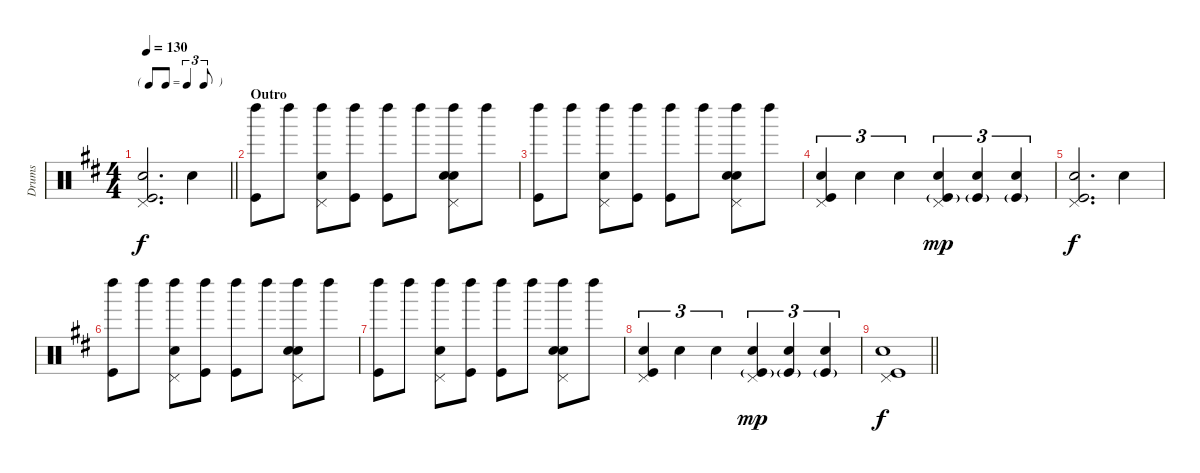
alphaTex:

\track ("Drums" "Drums") {instrument percussion}
\staff {score}
\articulation defaults
\ts (4 4)
\tf triplet8th
\tempo 130
\clef neutral
\barLineRight lightlight
\ks d
("Pedal Hi-Hat (hit)" "Snare (hit) 2" "Kick (hit)").2{d dy f} "Snare (hit) 2".4 |
\section ("" "Outro")
("Left Maraca (hit)" "Kick (hit)").8 "Left Maraca (hit)".8 ("Left Maraca (hit)" "Pedal Hi-Hat (hit)" "Snare (hit) 2").8 ("Left Maraca (hit)" "Kick (hit)").8 ("Left Maraca (hit)" "Kick (hit)").8 "Left Maraca (hit)".8 ("Left Maraca (hit)" "Pedal Hi-Hat (hit)" "Snare (hit) 2" "Hand Clap (hit)").8 "Left Maraca (hit)".8 |
("Left Maraca (hit)" "Kick (hit)").8 "Left Maraca (hit)".8 ("Left Maraca (hit)" "Pedal Hi-Hat (hit)" "Snare (hit) 2").8 ("Left Maraca (hit)" "Kick (hit)").8 ("Left Maraca (hit)" "Kick (hit)").8 "Left Maraca (hit)".8 ("Left Maraca (hit)" "Pedal Hi-Hat (hit)" "Snare (hit) 2" "Hand Clap (hit)").8 "Left Maraca (hit)".8 |
("Pedal Hi-Hat (hit)" "Snare (hit) 2" "Kick (hit)").4{tu (3 2)} "Snare (hit) 2".4{tu (3 2)} "Snare (hit) 2".4{tu (3 2)} ("Pedal Hi-Hat (hit)" "Snare (hit) 2" "Kick (hit)"{g}).4{tu (3 2) dy mp} ("Snare (hit) 2" "Kick (hit)"{g}).4{tu (3 2)} ("Snare (hit) 2" "Kick (hit)"{g}).4{tu (3 2)} |
("Pedal Hi-Hat (hit)" "Snare (hit) 2" "Kick (hit)").2{d dy f} "Snare (hit) 2".4 |
("Left Maraca (hit)" "Kick (hit)").8 "Left Maraca (hit)".8 ("Left Maraca (hit)" "Pedal Hi-Hat (hit)" "Snare (hit) 2").8 ("Left Maraca (hit)" "Kick (hit)").8 ("Left Maraca (hit)" "Kick (hit)").8 "Left Maraca (hit)".8 ("Left Maraca (hit)" "Pedal Hi-Hat (hit)" "Snare (hit) 2" "Hand Clap (hit)").8 "Left Maraca (hit)".8 |
("Left Maraca (hit)" "Kick (hit)").8 "Left Maraca (hit)".8 ("Left Maraca (hit)" "Pedal Hi-Hat (hit)" "Snare (hit) 2").8 ("Left Maraca (hit)" "Kick (hit)").8 ("Left Maraca (hit)" "Kick (hit)").8 "Left Maraca (hit)".8 ("Left Maraca (hit)" "Pedal Hi-Hat (hit)" "Snare (hit) 2" "Hand Clap (hit)").8 "Left Maraca (hit)".8 |
("Pedal Hi-Hat (hit)" "Snare (hit) 2" "Kick (hit)").4{tu (3 2)} "Snare (hit) 2".4{tu (3 2)} "Snare (hit) 2".4{tu (3 2)} ("Pedal Hi-Hat (hit)" "Snare (hit) 2" "Kick (hit)"{g}).4{tu (3 2) dy mp} ("Snare (hit) 2" "Kick (hit)"{g}).4{tu (3 2)} ("Snare (hit) 2" "Kick (hit)"{g}).4{tu (3 2)} |
\barLineRight lightlight
("Pedal Hi-Hat (hit)" "Snare (hit) 2" "Kick (hit)").1{dy f}
